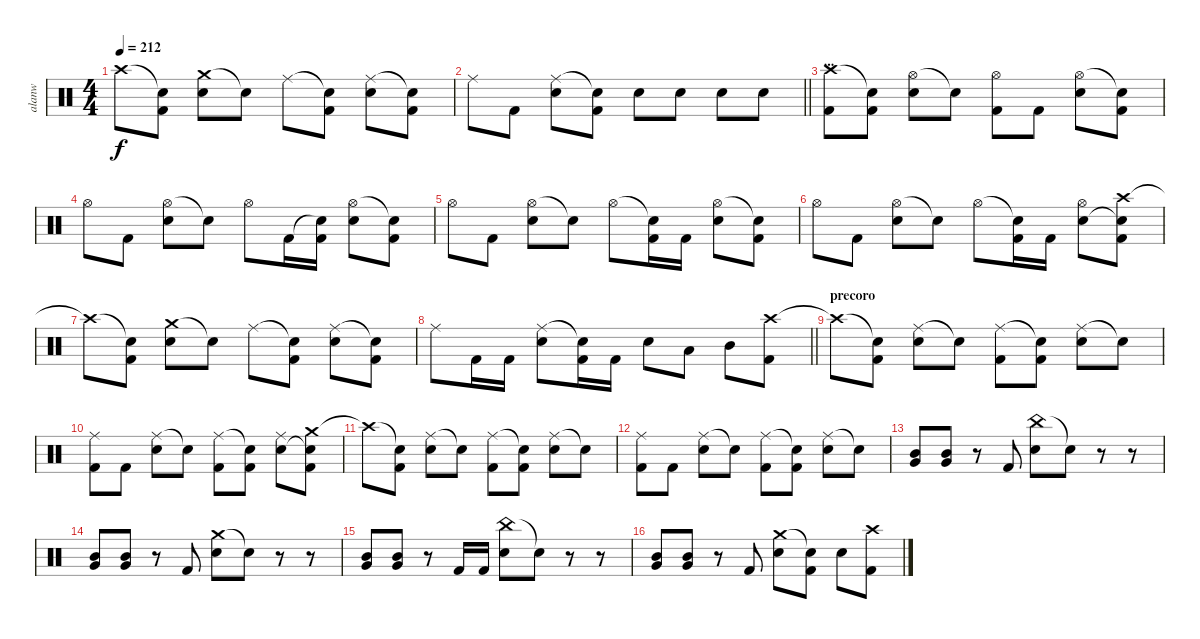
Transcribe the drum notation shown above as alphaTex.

\track ("alanw" "alanw") {instrument percussion}
\staff {score}
\articulation defaults
\ts (4 4)
\tempo 212
\clef neutral
\ks c "Crash high (hit)"{t}.8{dy f}
("Snare (hit)"{t} "Kick (hit) 2").8 ("Crash medium (hit)" "Electric Snare (hit)").8 "Snare (hit)"{t}.8 "Ride (middle)".8 ("Snare (hit)"{t} "Kick (hit) 2").8 ("Ride (middle)" "Electric Snare (hit)").8 ("Snare (hit)"{t} "Kick (hit) 2").8 |
\barLineRight lightlight "Ride (middle)".8 "Kick (hit) 2".8
("Ride (middle)" "Electric Snare (hit)").8 ("Snare (hit)"{t} "Kick (hit) 2").8 "Electric Snare (hit)".8 "Electric Snare (hit)".8 "Electric Snare (hit)".8 "Electric Snare (hit)".8 |
\section ("" "...")
("Crash high (hit)" "Kick (hit) 2").8 ("Snare (hit)"{t} "Kick (hit) 2").8 ("Hi-Hat (open)" "Electric Snare (hit)").8 "Snare (hit)"{t}.8 ("Hi-Hat (open)" "Kick (hit) 2").8 "Kick (hit) 2".8 ("Hi-Hat (open)" "Electric Snare (hit)").8 ("Snare (hit)"{t} "Kick (hit) 2").8 |
"Hi-Hat (open)".8 "Kick (hit) 2".8 ("Hi-Hat (open)" "Electric Snare (hit)").8 "Snare (hit)"{t}.8 "Hi-Hat (open)".8 "Kick (hit) 2".16 ("Snare (hit)"{t} "Kick (hit) 2").16 ("Hi-Hat (open)" "Electric Snare (hit)").8 ("Snare (hit)"{t} "Kick (hit) 2").8 |
"Hi-Hat (open)".8 "Kick (hit) 2".8 ("Hi-Hat (open)" "Electric Snare (hit)").8 "Snare (hit)"{t}.8 "Hi-Hat (open)".8 ("Snare (hit)"{t} "Kick (hit) 2").16 "Kick (hit) 2".16 ("Hi-Hat (open)" "Electric Snare (hit)").8 ("Snare (hit)"{t} "Kick (hit) 2").8 |
"Hi-Hat (open)".8 "Kick (hit) 2".8 ("Hi-Hat (open)" "Electric Snare (hit)").8 "Snare (hit)"{t}.8 "Hi-Hat (open)".8 ("Snare (hit)"{t} "Kick (hit) 2").16 "Kick (hit) 2".16 ("Hi-Hat (open)" "Electric Snare (hit)").8 ("Crash high (hit)" "Snare (hit)"{t} "Kick (hit) 2").8 |
"Crash high (hit)"{t}.8 ("Snare (hit)"{t} "Kick (hit) 2").8 ("Crash medium (hit)" "Electric Snare (hit)").8 "Snare (hit)"{t}.8 "Ride (middle)".8 ("Snare (hit)"{t} "Kick (hit) 2").8 ("Ride (middle)" "Electric Snare (hit)").8 ("Snare (hit)"{t} "Kick (hit) 2").8 |
\barLineRight lightlight "Ride (middle)".8 "Kick (hit) 2".16 "Kick (hit) 2".16
("Ride (middle)" "Electric Snare (hit)").8 ("Snare (hit)"{t} "Kick (hit) 2").16 "Kick (hit) 2".16 "Electric Snare (hit)".8 "Low Tom (hit)".8 "Mid Tom (hit)".8 ("Crash high (hit)" "Kick (hit) 2").8 |
\section ("" "precoro")
"Crash high (hit)"{t}.8 ("Snare (hit)"{t} "Kick (hit) 2").8 ("Ride (middle)" "Electric Snare (hit)").8 "Snare (hit)"{t}.8 ("Ride (middle)" "Kick (hit) 2").8 ("Snare (hit)"{t} "Kick (hit) 2").8 ("Ride (middle)" "Electric Snare (hit)").8 "Snare (hit)"{t}.8 |
("Ride (middle)" "Kick (hit) 2").8 "Kick (hit) 2".8 ("Ride (middle)" "Electric Snare (hit)").8 "Snare (hit)"{t}.8 ("Ride (middle)" "Kick (hit) 2").8 ("Snare (hit)"{t} "Kick (hit) 2").8 ("Ride (middle)" "Electric Snare (hit)").8 ("Crash medium (hit)" "Snare (hit)"{t} "Kick (hit) 2").8 |
"Crash high (hit)"{t}.8 ("Snare (hit)"{t} "Kick (hit) 2").8 ("Ride (middle)" "Electric Snare (hit)").8 "Snare (hit)"{t}.8 ("Ride (middle)" "Kick (hit) 2").8 ("Snare (hit)"{t} "Kick (hit) 2").8 ("Ride (middle)" "Electric Snare (hit)").8 "Snare (hit)"{t}.8 |
("Ride (middle)" "Kick (hit) 2").8 "Kick (hit) 2".8 ("Ride (middle)" "Electric Snare (hit)").8 "Snare (hit)"{t}.8 ("Ride (middle)" "Kick (hit) 2").8 ("Snare (hit)"{t} "Kick (hit) 2").8 ("Ride (middle)" "Electric Snare (hit)").8 "Snare (hit)"{t}.8 |
("Mid Tom (hit)" "Very Low Tom (hit)").8 ("Mid Tom (hit)" "Very Low Tom (hit)").8 r.8 "Kick (hit) 2".8 ("China (hit)" "Electric Snare (hit)").8 "Snare (hit)"{t}.8 r.8 r.8 |
("Mid Tom (hit)" "Very Low Tom (hit)").8 ("Mid Tom (hit)" "Very Low Tom (hit)").8 r.8 "Kick (hit) 2".8 ("Crash medium (hit)" "Electric Snare (hit)").8 "Snare (hit)"{t}.8 r.8 r.8 |
("Mid Tom (hit)" "Very Low Tom (hit)").8 ("Mid Tom (hit)" "Very Low Tom (hit)").8 r.8 "Kick (hit) 2".16 "Kick (hit) 2".16 ("China (hit)" "Electric Snare (hit)").8 "Snare (hit)"{t}.8 r.8 r.8 |
("Mid Tom (hit)" "Very Low Tom (hit)").8 ("Mid Tom (hit)" "Very Low Tom (hit)").8 r.8 "Kick (hit) 2".8 ("Crash medium (hit)" "Electric Snare (hit)").8 ("Snare (hit)"{t} "Kick (hit) 2").8 "Electric Snare (hit)".8 ("Crash high (hit)" "Kick (hit) 2").8
